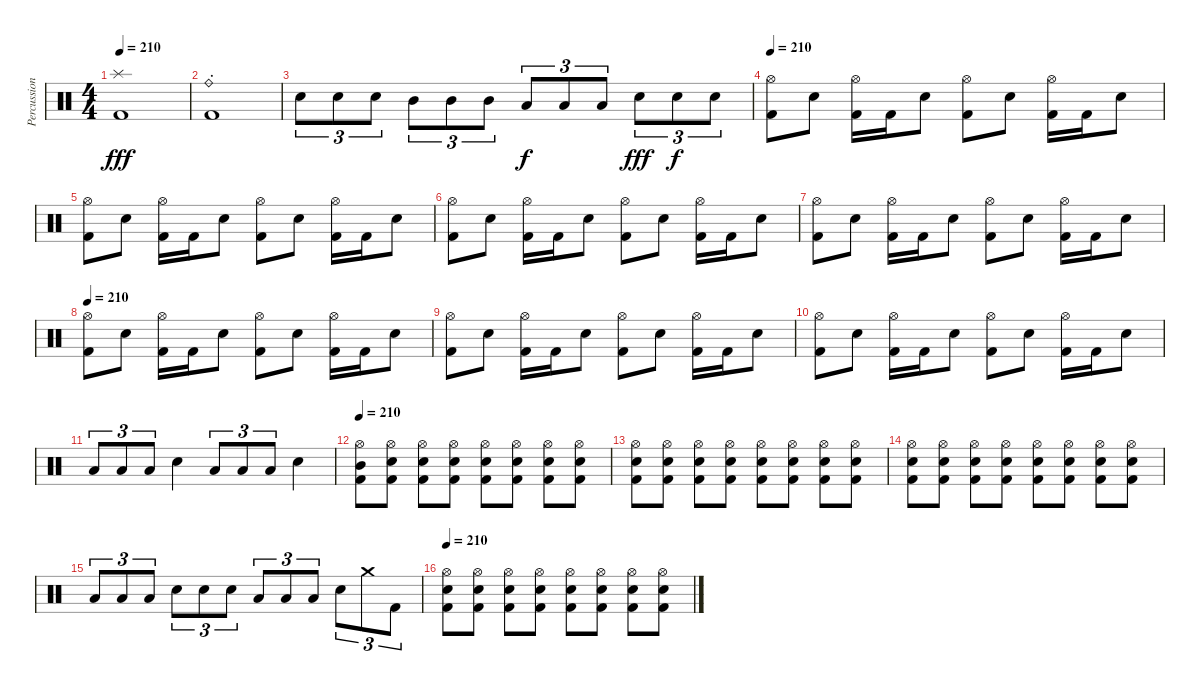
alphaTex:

\track ("Percussion" "Percussion") {instrument percussion}
\staff {score}
\articulation defaults
\ts (4 4)
\tempo 210
\clef neutral
\ks c
("Splash (hit)" "Kick (hit) 2").1{dy fff} |
("Ride (bell)"{st} "Kick (hit) 2").1 |
"Electric Snare (hit)".8{tu (3 2)} "Electric Snare (hit)".8{tu (3 2)} "Electric Snare (hit)".8{tu (3 2)} "Mid Tom (hit)".8{tu (3 2)} "Mid Tom (hit)".8{tu (3 2)} "Mid Tom (hit)".8{tu (3 2)} "Low Tom (hit)".8{tu (3 2) dy f} "Low Tom (hit)".8{tu (3 2)} "Low Tom (hit)".8{tu (3 2)} "Electric Snare (hit)".8{tu (3 2) dy fff} "Electric Snare (hit)".8{tu (3 2) dy f} "Electric Snare (hit)".8{tu (3 2)} |
\tempo 210
("Hi-Hat (open)" "Kick (hit) 2").8 "Electric Snare (hit)".8 ("Hi-Hat (open)" "Kick (hit) 2").16 "Kick (hit) 2".16 "Electric Snare (hit)".8 ("Hi-Hat (open)" "Kick (hit) 2").8 "Electric Snare (hit)".8 ("Hi-Hat (open)" "Kick (hit) 2").16 "Kick (hit) 2".16 "Electric Snare (hit)".8 |
("Hi-Hat (open)" "Kick (hit) 2").8 "Electric Snare (hit)".8 ("Hi-Hat (open)" "Kick (hit) 2").16 "Kick (hit) 2".16 "Electric Snare (hit)".8 ("Hi-Hat (open)" "Kick (hit) 2").8 "Electric Snare (hit)".8 ("Hi-Hat (open)" "Kick (hit) 2").16 "Kick (hit) 2".16 "Electric Snare (hit)".8 |
("Hi-Hat (open)" "Kick (hit) 2").8 "Electric Snare (hit)".8 ("Hi-Hat (open)" "Kick (hit) 2").16 "Kick (hit) 2".16 "Electric Snare (hit)".8 ("Hi-Hat (open)" "Kick (hit) 2").8 "Electric Snare (hit)".8 ("Hi-Hat (open)" "Kick (hit) 2").16 "Kick (hit) 2".16 "Electric Snare (hit)".8 |
("Hi-Hat (open)" "Kick (hit) 2").8 "Electric Snare (hit)".8 ("Hi-Hat (open)" "Kick (hit) 2").16 "Kick (hit) 2".16 "Electric Snare (hit)".8 ("Hi-Hat (open)" "Kick (hit) 2").8 "Electric Snare (hit)".8 ("Hi-Hat (open)" "Kick (hit) 2").16 "Kick (hit) 2".16 "Electric Snare (hit)".8 |
\tempo 210
("Hi-Hat (open)" "Kick (hit) 2").8 "Electric Snare (hit)".8 ("Hi-Hat (open)" "Kick (hit) 2").16 "Kick (hit) 2".16 "Electric Snare (hit)".8 ("Hi-Hat (open)" "Kick (hit) 2").8 "Electric Snare (hit)".8 ("Hi-Hat (open)" "Kick (hit) 2").16 "Kick (hit) 2".16 "Electric Snare (hit)".8 |
("Hi-Hat (open)" "Kick (hit) 2").8 "Electric Snare (hit)".8 ("Hi-Hat (open)" "Kick (hit) 2").16 "Kick (hit) 2".16 "Electric Snare (hit)".8 ("Hi-Hat (open)" "Kick (hit) 2").8 "Electric Snare (hit)".8 ("Hi-Hat (open)" "Kick (hit) 2").16 "Kick (hit) 2".16 "Electric Snare (hit)".8 |
("Hi-Hat (open)" "Kick (hit) 2").8 "Electric Snare (hit)".8 ("Hi-Hat (open)" "Kick (hit) 2").16 "Kick (hit) 2".16 "Electric Snare (hit)".8 ("Hi-Hat (open)" "Kick (hit) 2").8 "Electric Snare (hit)".8 ("Hi-Hat (open)" "Kick (hit) 2").16 "Kick (hit) 2".16 "Electric Snare (hit)".8 |
"Low Tom (hit)".8{tu (3 2)} "Low Tom (hit)".8{tu (3 2)} "Low Tom (hit)".8{tu (3 2)} "Electric Snare (hit)".4 "Low Tom (hit)".8{tu (3 2)} "Low Tom (hit)".8{tu (3 2)} "Low Tom (hit)".8{tu (3 2)} "Electric Snare (hit)".4 |
\tempo 210
("Hi-Hat (open)" "Mid Tom (hit)" "Kick (hit) 2").8 ("Hi-Hat (open)" "Electric Snare (hit)" "Kick (hit) 2").8 ("Hi-Hat (open)" "Electric Snare (hit)" "Kick (hit) 2").8 ("Hi-Hat (open)" "Electric Snare (hit)" "Kick (hit) 2").8 ("Hi-Hat (open)" "Electric Snare (hit)" "Kick (hit) 2").8 ("Hi-Hat (open)" "Electric Snare (hit)" "Kick (hit) 2").8 ("Hi-Hat (open)" "Electric Snare (hit)" "Kick (hit) 2").8 ("Hi-Hat (open)" "Electric Snare (hit)" "Kick (hit) 2").8 |
("Hi-Hat (open)" "Electric Snare (hit)" "Kick (hit) 2").8 ("Hi-Hat (open)" "Electric Snare (hit)" "Kick (hit) 2").8 ("Hi-Hat (open)" "Electric Snare (hit)" "Kick (hit) 2").8 ("Hi-Hat (open)" "Electric Snare (hit)" "Kick (hit) 2").8 ("Hi-Hat (open)" "Electric Snare (hit)" "Kick (hit) 2").8 ("Hi-Hat (open)" "Electric Snare (hit)" "Kick (hit) 2").8 ("Hi-Hat (open)" "Electric Snare (hit)" "Kick (hit) 2").8 ("Hi-Hat (open)" "Electric Snare (hit)" "Kick (hit) 2").8 |
("Hi-Hat (open)" "Electric Snare (hit)" "Kick (hit) 2").8 ("Hi-Hat (open)" "Electric Snare (hit)" "Kick (hit) 2").8 ("Hi-Hat (open)" "Electric Snare (hit)" "Kick (hit) 2").8 ("Hi-Hat (open)" "Electric Snare (hit)" "Kick (hit) 2").8 ("Hi-Hat (open)" "Electric Snare (hit)" "Kick (hit) 2").8 ("Hi-Hat (open)" "Electric Snare (hit)" "Kick (hit) 2").8 ("Hi-Hat (open)" "Electric Snare (hit)" "Kick (hit) 2").8 ("Hi-Hat (open)" "Electric Snare (hit)" "Kick (hit) 2").8 |
"Low Tom (hit)".8{tu (3 2)} "Low Tom (hit)".8{tu (3 2)} "Low Tom (hit)".8{tu (3 2)} "Electric Snare (hit)".8{tu (3 2)} "Electric Snare (hit)".8{tu (3 2)} "Electric Snare (hit)".8{tu (3 2)} "Low Tom (hit)".8{tu (3 2)} "Low Tom (hit)".8{tu (3 2)} "Low Tom (hit)".8{tu (3 2)} "Electric Snare (hit)".8{tu (3 2)} "Crash medium (hit)".8{tu (3 2)} "Kick (hit) 2".8{tu (3 2)} |
\tempo 210
("Hi-Hat (open)" "Electric Snare (hit)" "Kick (hit) 2").8 ("Hi-Hat (open)" "Electric Snare (hit)" "Kick (hit) 2").8 ("Hi-Hat (open)" "Electric Snare (hit)" "Kick (hit) 2").8 ("Hi-Hat (open)" "Electric Snare (hit)" "Kick (hit) 2").8 ("Hi-Hat (open)" "Electric Snare (hit)" "Kick (hit) 2").8 ("Hi-Hat (open)" "Electric Snare (hit)" "Kick (hit) 2").8 ("Hi-Hat (open)" "Electric Snare (hit)" "Kick (hit) 2").8 ("Hi-Hat (open)" "Electric Snare (hit)" "Kick (hit) 2").8
